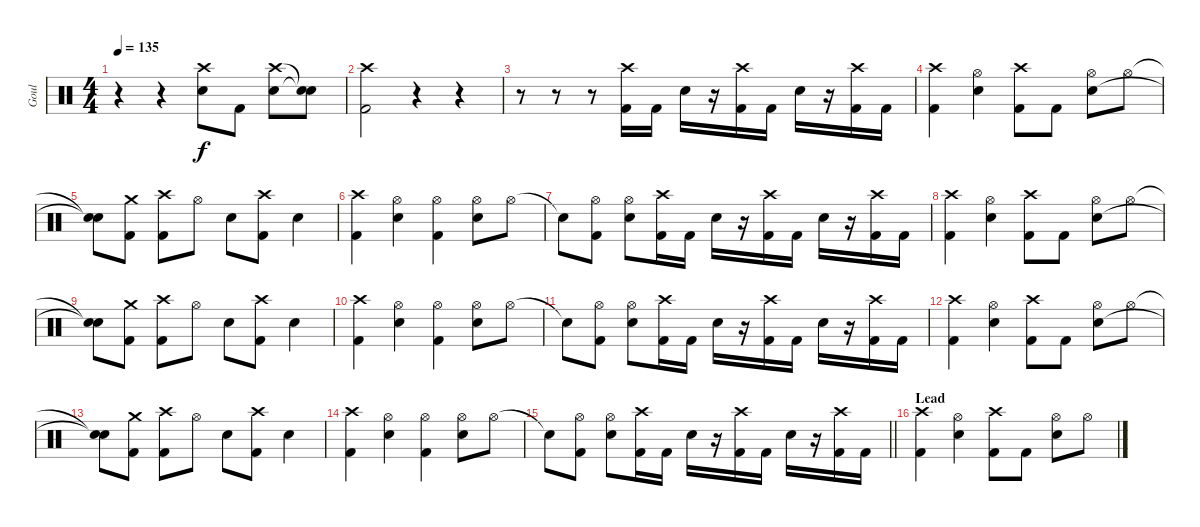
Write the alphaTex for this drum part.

\track ("Goul" "Goul") {instrument percussion}
\staff {score}
\articulation defaults
\ts (4 4)
\tempo 135
\clef neutral
\ks c
r.4{dy f} r.4 ("Crash high (hit)" "Electric Snare (hit)").8 "Kick (hit) 2".8 ("Crash high (hit)" "Electric Snare (hit)").8 ("Snare (hit)"{t} "Snare (hit)"{t}).8 |
("Crash high (hit)" "Kick (hit) 2").2 r.4 r.4 |
r.8 r.8 r.8 ("Crash high (hit)" "Kick (hit) 2").16 "Kick (hit) 2".16 "Electric Snare (hit)".16 r.16 ("Crash high (hit)" "Kick (hit) 2").16 "Kick (hit) 2".16 "Electric Snare (hit)".16 r.16 ("Crash high (hit)" "Kick (hit) 2").16 "Kick (hit) 2".16 |
("Crash high (hit)" "Kick (hit) 2").4 ("Hi-Hat (open)" "Electric Snare (hit)").4 ("Crash high (hit)" "Kick (hit) 2").8 "Kick (hit) 2".8 ("Hi-Hat (open)" "Electric Snare (hit)").8 "Hi-Hat (open)".8 |
("Snare (hit)"{t} "Snare (hit)"{t}).8 ("Crash medium (hit)" "Kick (hit) 2").8 ("Crash high (hit)" "Kick (hit) 2").8 "Hi-Hat (open)".8 "Electric Snare (hit)".8 ("Crash high (hit)" "Kick (hit) 2").8 "Electric Snare (hit)".4 |
("Crash high (hit)" "Kick (hit) 2").4 ("Hi-Hat (open)" "Electric Snare (hit)").4 ("Hi-Hat (open)" "Kick (hit) 2").4 ("Hi-Hat (open)" "Electric Snare (hit)").8 "Hi-Hat (open)".8 |
"Snare (hit)"{t}.8 ("Hi-Hat (open)" "Kick (hit) 2").8 ("Electric Snare (hit)" "Hi-Hat (open)").8 ("Crash high (hit)" "Kick (hit) 2").16 "Kick (hit) 2".16 "Electric Snare (hit)".16 r.16 ("Crash high (hit)" "Kick (hit) 2").16 "Kick (hit) 2".16 "Electric Snare (hit)".16 r.16 ("Crash high (hit)" "Kick (hit) 2").16 "Kick (hit) 2".16 |
("Crash high (hit)" "Kick (hit) 2").4 ("Hi-Hat (open)" "Electric Snare (hit)").4 ("Crash high (hit)" "Kick (hit) 2").8 "Kick (hit) 2".8 ("Hi-Hat (open)" "Electric Snare (hit)").8 "Hi-Hat (open)".8 |
("Snare (hit)"{t} "Snare (hit)"{t}).8 ("Crash medium (hit)" "Kick (hit) 2").8 ("Crash high (hit)" "Kick (hit) 2").8 "Hi-Hat (open)".8 "Electric Snare (hit)".8 ("Crash high (hit)" "Kick (hit) 2").8 "Electric Snare (hit)".4 |
("Crash high (hit)" "Kick (hit) 2").4 ("Hi-Hat (open)" "Electric Snare (hit)").4 ("Hi-Hat (open)" "Kick (hit) 2").4 ("Hi-Hat (open)" "Electric Snare (hit)").8 "Hi-Hat (open)".8 |
"Snare (hit)"{t}.8 ("Hi-Hat (open)" "Kick (hit) 2").8 ("Electric Snare (hit)" "Hi-Hat (open)").8 ("Crash high (hit)" "Kick (hit) 2").16 "Kick (hit) 2".16 "Electric Snare (hit)".16 r.16 ("Crash high (hit)" "Kick (hit) 2").16 "Kick (hit) 2".16 "Electric Snare (hit)".16 r.16 ("Crash high (hit)" "Kick (hit) 2").16 "Kick (hit) 2".16 |
("Crash high (hit)" "Kick (hit) 2").4 ("Hi-Hat (open)" "Electric Snare (hit)").4 ("Crash high (hit)" "Kick (hit) 2").8 "Kick (hit) 2".8 ("Hi-Hat (open)" "Electric Snare (hit)").8 "Hi-Hat (open)".8 |
("Snare (hit)"{t} "Snare (hit)"{t}).8 ("Crash medium (hit)" "Kick (hit) 2").8 ("Crash high (hit)" "Kick (hit) 2").8 "Hi-Hat (open)".8 "Electric Snare (hit)".8 ("Crash high (hit)" "Kick (hit) 2").8 "Electric Snare (hit)".4 |
("Crash high (hit)" "Kick (hit) 2").4 ("Hi-Hat (open)" "Electric Snare (hit)").4 ("Hi-Hat (open)" "Kick (hit) 2").4 ("Hi-Hat (open)" "Electric Snare (hit)").8 "Hi-Hat (open)".8 |
\barLineRight lightlight "Snare (hit)"{t}.8
("Hi-Hat (open)" "Kick (hit) 2").8 ("Electric Snare (hit)" "Hi-Hat (open)").8 ("Crash high (hit)" "Kick (hit) 2").16 "Kick (hit) 2".16 "Electric Snare (hit)".16 r.16 ("Crash high (hit)" "Kick (hit) 2").16 "Kick (hit) 2".16 "Electric Snare (hit)".16 r.16 ("Crash high (hit)" "Kick (hit) 2").16 "Kick (hit) 2".16 |
\section ("" "Lead")
("Crash high (hit)" "Kick (hit) 2").4 ("Hi-Hat (open)" "Electric Snare (hit)").4 ("Crash high (hit)" "Kick (hit) 2").8 "Kick (hit) 2".8 ("Hi-Hat (open)" "Electric Snare (hit)").8 "Hi-Hat (open)".8
